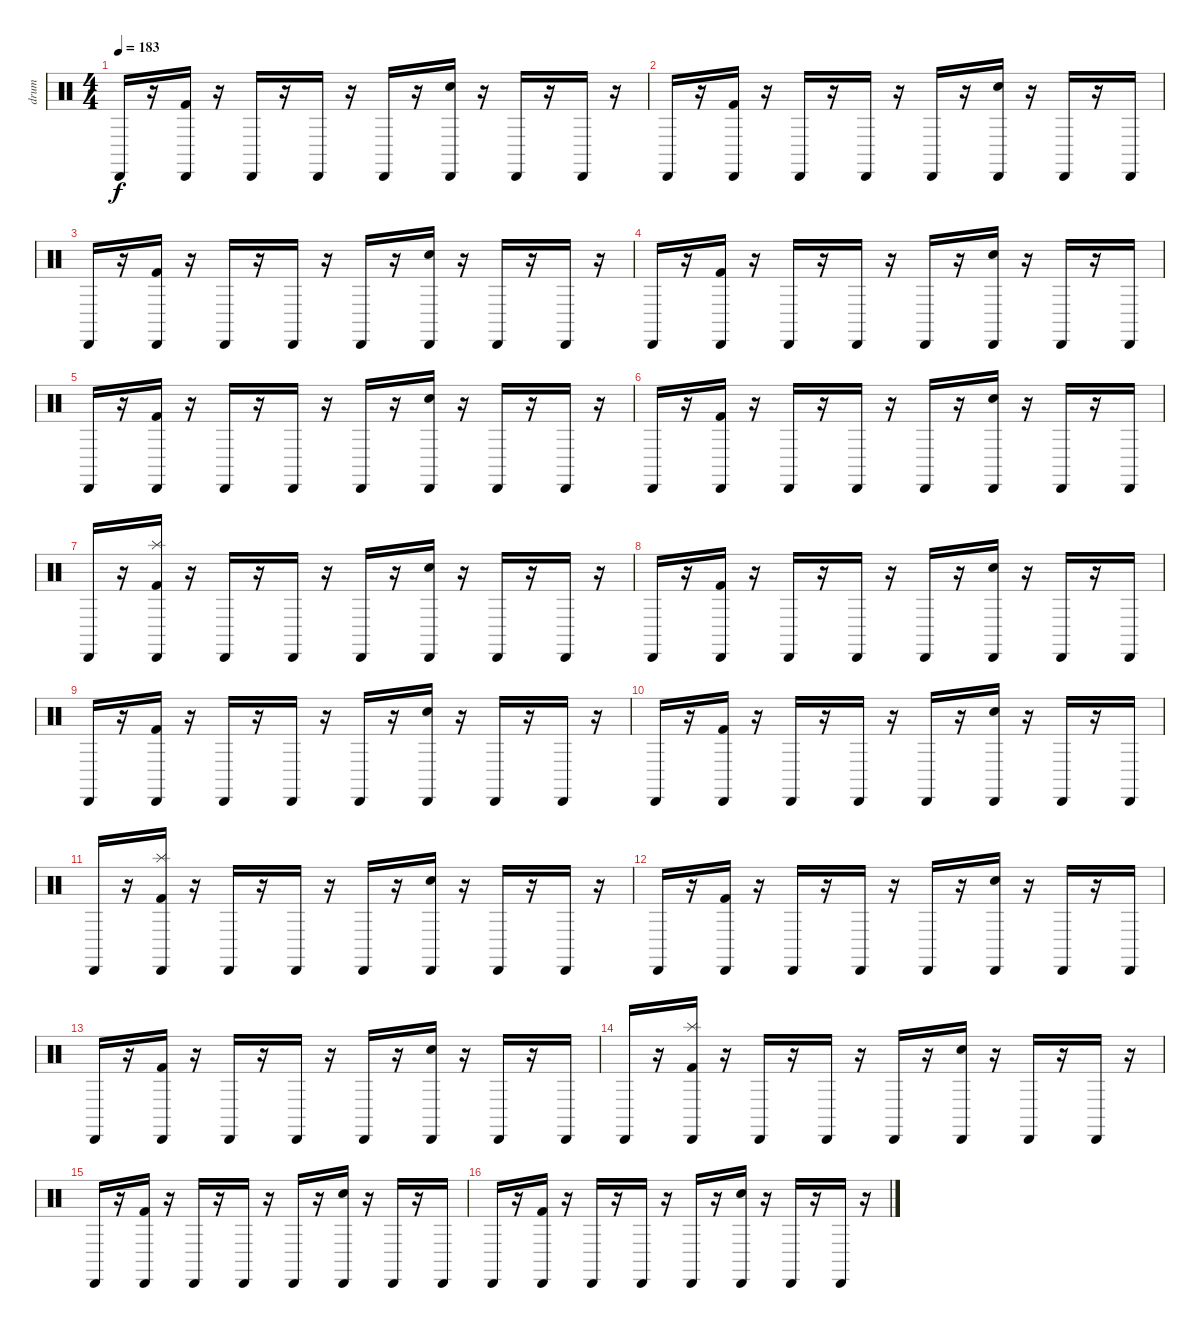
\track ("drum" "drum") {instrument percussion}
\staff {score}
\articulation defaults
\ts (4 4)
\tempo 183
\clef neutral
\ks c "Cabasa (hit)".16{dy f}
r.16 ("Cabasa (hit)" "Kick (hit) 2").16 r.16 "Cabasa (hit)".16 r.16 "Cabasa (hit)".16 r.16 "Cabasa (hit)".16 r.16 ("Cabasa (hit)" "Snare (hit) 2").16 r.16 "Cabasa (hit)".16 r.16 "Cabasa (hit)".16 r.16 |
"Cabasa (hit)".16 r.16 ("Cabasa (hit)" "Kick (hit) 2").16 r.16 "Cabasa (hit)".16 r.16 "Cabasa (hit)".16 r.16 "Cabasa (hit)".16 r.16 ("Cabasa (hit)" "Snare (hit) 2").16 r.16 "Cabasa (hit)".16 r.16 "Cabasa (hit)".16 |
"Cabasa (hit)".16 r.16 ("Cabasa (hit)" "Kick (hit) 2").16 r.16 "Cabasa (hit)".16 r.16 "Cabasa (hit)".16 r.16 "Cabasa (hit)".16 r.16 ("Cabasa (hit)" "Snare (hit) 2").16 r.16 "Cabasa (hit)".16 r.16 "Cabasa (hit)".16 r.16 |
"Cabasa (hit)".16 r.16 ("Cabasa (hit)" "Kick (hit) 2").16 r.16 "Cabasa (hit)".16 r.16 "Cabasa (hit)".16 r.16 "Cabasa (hit)".16 r.16 ("Cabasa (hit)" "Snare (hit) 2").16 r.16 "Cabasa (hit)".16 r.16 "Cabasa (hit)".16 |
"Cabasa (hit)".16 r.16 ("Cabasa (hit)" "Kick (hit) 2").16 r.16 "Cabasa (hit)".16 r.16 "Cabasa (hit)".16 r.16 "Cabasa (hit)".16 r.16 ("Cabasa (hit)" "Snare (hit) 2").16 r.16 "Cabasa (hit)".16 r.16 "Cabasa (hit)".16 r.16 |
"Cabasa (hit)".16 r.16 ("Cabasa (hit)" "Kick (hit) 2").16 r.16 "Cabasa (hit)".16 r.16 "Cabasa (hit)".16 r.16 "Cabasa (hit)".16 r.16 ("Cabasa (hit)" "Snare (hit) 2").16 r.16 "Cabasa (hit)".16 r.16 "Cabasa (hit)".16 |
"Cabasa (hit)".16 r.16 ("Cabasa (hit)" "Kick (hit) 2" "Splash (hit)").16 r.16 "Cabasa (hit)".16 r.16 "Cabasa (hit)".16 r.16 "Cabasa (hit)".16 r.16 ("Cabasa (hit)" "Snare (hit) 2").16 r.16 "Cabasa (hit)".16 r.16 "Cabasa (hit)".16 r.16 |
"Cabasa (hit)".16 r.16 ("Cabasa (hit)" "Kick (hit) 2").16 r.16 "Cabasa (hit)".16 r.16 "Cabasa (hit)".16 r.16 "Cabasa (hit)".16 r.16 ("Cabasa (hit)" "Snare (hit) 2").16 r.16 "Cabasa (hit)".16 r.16 "Cabasa (hit)".16 |
"Cabasa (hit)".16 r.16 ("Cabasa (hit)" "Kick (hit) 2").16 r.16 "Cabasa (hit)".16 r.16 "Cabasa (hit)".16 r.16 "Cabasa (hit)".16 r.16 ("Cabasa (hit)" "Snare (hit) 2").16 r.16 "Cabasa (hit)".16 r.16 "Cabasa (hit)".16 r.16 |
"Cabasa (hit)".16 r.16 ("Cabasa (hit)" "Kick (hit) 2").16 r.16 "Cabasa (hit)".16 r.16 "Cabasa (hit)".16 r.16 "Cabasa (hit)".16 r.16 ("Cabasa (hit)" "Snare (hit) 2").16 r.16 "Cabasa (hit)".16 r.16 "Cabasa (hit)".16 |
"Cabasa (hit)".16 r.16 ("Cabasa (hit)" "Kick (hit) 2" "Splash (hit)").16 r.16 "Cabasa (hit)".16 r.16 "Cabasa (hit)".16 r.16 "Cabasa (hit)".16 r.16 ("Cabasa (hit)" "Snare (hit) 2").16 r.16 "Cabasa (hit)".16 r.16 "Cabasa (hit)".16 r.16 |
"Cabasa (hit)".16 r.16 ("Cabasa (hit)" "Kick (hit) 2").16 r.16 "Cabasa (hit)".16 r.16 "Cabasa (hit)".16 r.16 "Cabasa (hit)".16 r.16 ("Cabasa (hit)" "Snare (hit) 2").16 r.16 "Cabasa (hit)".16 r.16 "Cabasa (hit)".16 |
"Cabasa (hit)".16 r.16 ("Cabasa (hit)" "Kick (hit) 2").16 r.16 "Cabasa (hit)".16 r.16 "Cabasa (hit)".16 r.16 "Cabasa (hit)".16 r.16 ("Cabasa (hit)" "Snare (hit) 2").16 r.16 "Cabasa (hit)".16 r.16 "Cabasa (hit)".16 |
"Cabasa (hit)".16 r.16 ("Cabasa (hit)" "Kick (hit) 2" "Splash (hit)").16 r.16 "Cabasa (hit)".16 r.16 "Cabasa (hit)".16 r.16 "Cabasa (hit)".16 r.16 ("Cabasa (hit)" "Snare (hit) 2").16 r.16 "Cabasa (hit)".16 r.16 "Cabasa (hit)".16 r.16 |
"Cabasa (hit)".16 r.16 ("Cabasa (hit)" "Kick (hit) 2").16 r.16 "Cabasa (hit)".16 r.16 "Cabasa (hit)".16 r.16 "Cabasa (hit)".16 r.16 ("Cabasa (hit)" "Snare (hit) 2").16 r.16 "Cabasa (hit)".16 r.16 "Cabasa (hit)".16 |
"Cabasa (hit)".16 r.16 ("Cabasa (hit)" "Kick (hit) 2").16 r.16 "Cabasa (hit)".16 r.16 "Cabasa (hit)".16 r.16 "Cabasa (hit)".16 r.16 ("Cabasa (hit)" "Snare (hit) 2").16 r.16 "Cabasa (hit)".16 r.16 "Cabasa (hit)".16 r.16
